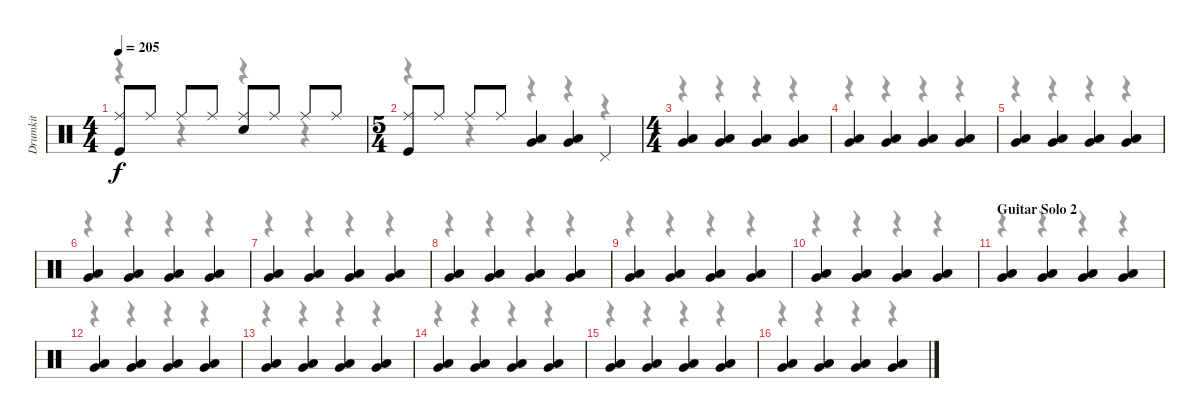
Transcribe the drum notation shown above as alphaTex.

\track ("Drumkit" "Drumkit") {instrument percussion}
\staff {score}
\articulation defaults
\voice
\ts (4 4)
\tempo 205
\clef neutral
\ks c
("Ride (middle)" "Kick (hit)").8{dy f} "Ride (middle)".8 "Ride (middle)".8 "Ride (middle)".8 ("Ride (middle)" "Snare (hit) 2").8 "Ride (middle)".8 "Ride (middle)".8 "Ride (middle)".8 |
\ts (5 4)
("Ride (middle)" "Kick (hit)").8 "Ride (middle)".8 "Ride (middle)".8 "Ride (middle)".8 ("Low Floor Tom (hit)" "Very Low Tom (hit)").4 ("Low Floor Tom (hit)" "Very Low Tom (hit)").4 "Pedal Hi-Hat (hit)".4 |
\ts (4 4)
("Very Low Tom (hit)" "Low Floor Tom (hit)").4 ("Very Low Tom (hit)" "Low Floor Tom (hit)").4 ("Very Low Tom (hit)" "Low Floor Tom (hit)").4 ("Very Low Tom (hit)" "Low Floor Tom (hit)").4 |
("Very Low Tom (hit)" "Low Floor Tom (hit)").4 ("Very Low Tom (hit)" "Low Floor Tom (hit)").4 ("Very Low Tom (hit)" "Low Floor Tom (hit)").4 ("Very Low Tom (hit)" "Low Floor Tom (hit)").4 |
("Very Low Tom (hit)" "Low Floor Tom (hit)").4 ("Very Low Tom (hit)" "Low Floor Tom (hit)").4 ("Very Low Tom (hit)" "Low Floor Tom (hit)").4 ("Very Low Tom (hit)" "Low Floor Tom (hit)").4 |
("Very Low Tom (hit)" "Low Floor Tom (hit)").4 ("Very Low Tom (hit)" "Low Floor Tom (hit)").4 ("Very Low Tom (hit)" "Low Floor Tom (hit)").4 ("Very Low Tom (hit)" "Low Floor Tom (hit)").4 |
("Very Low Tom (hit)" "Low Floor Tom (hit)").4 ("Very Low Tom (hit)" "Low Floor Tom (hit)").4 ("Very Low Tom (hit)" "Low Floor Tom (hit)").4 ("Very Low Tom (hit)" "Low Floor Tom (hit)").4 |
("Very Low Tom (hit)" "Low Floor Tom (hit)").4 ("Very Low Tom (hit)" "Low Floor Tom (hit)").4 ("Very Low Tom (hit)" "Low Floor Tom (hit)").4 ("Very Low Tom (hit)" "Low Floor Tom (hit)").4 |
("Very Low Tom (hit)" "Low Floor Tom (hit)").4 ("Very Low Tom (hit)" "Low Floor Tom (hit)").4 ("Very Low Tom (hit)" "Low Floor Tom (hit)").4 ("Very Low Tom (hit)" "Low Floor Tom (hit)").4 |
("Very Low Tom (hit)" "Low Floor Tom (hit)").4 ("Very Low Tom (hit)" "Low Floor Tom (hit)").4 ("Very Low Tom (hit)" "Low Floor Tom (hit)").4 ("Very Low Tom (hit)" "Low Floor Tom (hit)").4 |
\section ("" "Guitar Solo 2")
("Very Low Tom (hit)" "Low Floor Tom (hit)").4 ("Very Low Tom (hit)" "Low Floor Tom (hit)").4 ("Very Low Tom (hit)" "Low Floor Tom (hit)").4 ("Very Low Tom (hit)" "Low Floor Tom (hit)").4 |
("Very Low Tom (hit)" "Low Floor Tom (hit)").4 ("Very Low Tom (hit)" "Low Floor Tom (hit)").4 ("Very Low Tom (hit)" "Low Floor Tom (hit)").4 ("Very Low Tom (hit)" "Low Floor Tom (hit)").4 |
("Very Low Tom (hit)" "Low Floor Tom (hit)").4 ("Very Low Tom (hit)" "Low Floor Tom (hit)").4 ("Very Low Tom (hit)" "Low Floor Tom (hit)").4 ("Very Low Tom (hit)" "Low Floor Tom (hit)").4 |
("Very Low Tom (hit)" "Low Floor Tom (hit)").4 ("Very Low Tom (hit)" "Low Floor Tom (hit)").4 ("Very Low Tom (hit)" "Low Floor Tom (hit)").4 ("Very Low Tom (hit)" "Low Floor Tom (hit)").4 |
("Very Low Tom (hit)" "Low Floor Tom (hit)").4 ("Very Low Tom (hit)" "Low Floor Tom (hit)").4 ("Very Low Tom (hit)" "Low Floor Tom (hit)").4 ("Very Low Tom (hit)" "Low Floor Tom (hit)").4 |
("Very Low Tom (hit)" "Low Floor Tom (hit)").4 ("Very Low Tom (hit)" "Low Floor Tom (hit)").4 ("Very Low Tom (hit)" "Low Floor Tom (hit)").4 ("Very Low Tom (hit)" "Low Floor Tom (hit)").4
\voice
\clef neutral
\ottava regular
\simile none
\ks c
r.4{dy f} r.4 r.4 r.4 |
r.4 r.4 r.4 r.4 r.4 |
r.4 r.4 r.4 r.4 |
r.4 r.4 r.4 r.4 |
r.4 r.4 r.4 r.4 |
r.4 r.4 r.4 r.4 |
r.4 r.4 r.4 r.4 |
r.4 r.4 r.4 r.4 |
r.4 r.4 r.4 r.4 |
r.4 r.4 r.4 r.4 |
r.4 r.4 r.4 r.4 |
r.4 r.4 r.4 r.4 |
r.4 r.4 r.4 r.4 |
r.4 r.4 r.4 r.4 |
r.4 r.4 r.4 r.4 |
r.4 r.4 r.4 r.4
